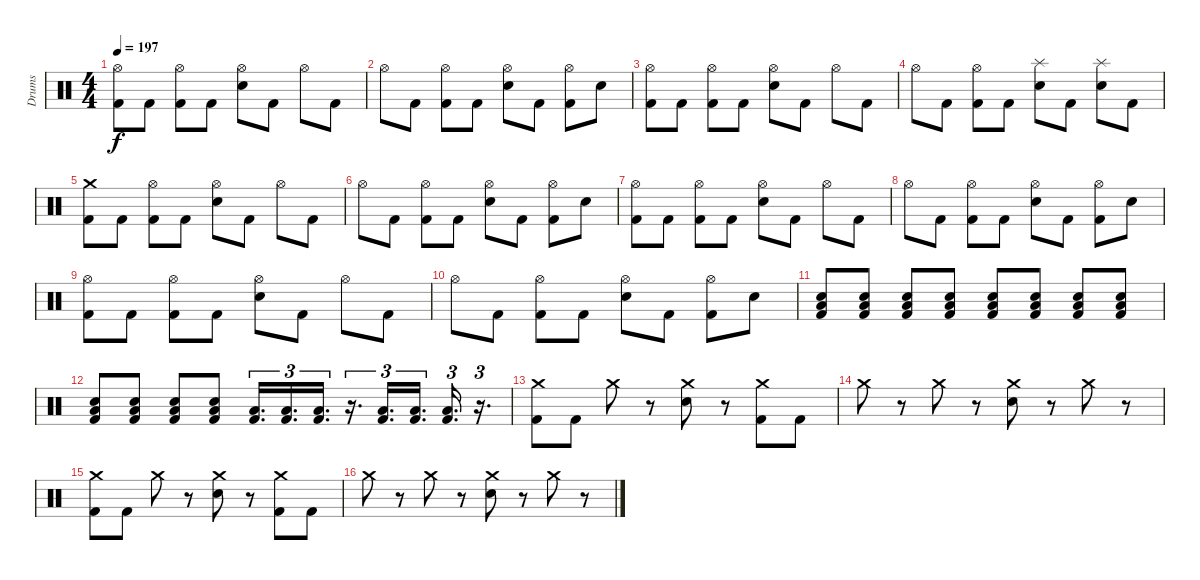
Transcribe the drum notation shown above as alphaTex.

\track ("Drums" "Drums") {instrument percussion}
\staff {score}
\articulation defaults
\ts (4 4)
\tempo 197
\clef neutral
\ks c
("Hi-Hat (open)" "Kick (hit) 2").8{dy f} "Kick (hit) 2".8 ("Hi-Hat (open)" "Kick (hit) 2").8 "Kick (hit) 2".8 ("Hi-Hat (open)" "Electric Snare (hit)").8 "Kick (hit) 2".8 "Hi-Hat (open)".8 "Kick (hit) 2".8 |
"Hi-Hat (open)".8 "Kick (hit) 2".8 ("Hi-Hat (open)" "Kick (hit) 2").8 "Kick (hit) 2".8 ("Hi-Hat (open)" "Electric Snare (hit)").8 "Kick (hit) 2".8 ("Hi-Hat (open)" "Kick (hit) 2").8 "Electric Snare (hit)".8 |
("Hi-Hat (open)" "Kick (hit) 2").8 "Kick (hit) 2".8 ("Hi-Hat (open)" "Kick (hit) 2").8 "Kick (hit) 2".8 ("Hi-Hat (open)" "Electric Snare (hit)").8 "Kick (hit) 2".8 "Hi-Hat (open)".8 "Kick (hit) 2".8 |
"Hi-Hat (open)".8 "Kick (hit) 2".8 ("Hi-Hat (open)" "Kick (hit) 2").8 "Kick (hit) 2".8 ("Splash (hit)" "Electric Snare (hit)").8 "Kick (hit) 2".8 ("Splash (hit)" "Electric Snare (hit)").8 "Kick (hit) 2".8 |
("Crash medium (hit)" "Kick (hit) 2").8 "Kick (hit) 2".8 ("Hi-Hat (open)" "Kick (hit) 2").8 "Kick (hit) 2".8 ("Hi-Hat (open)" "Electric Snare (hit)").8 "Kick (hit) 2".8 "Hi-Hat (open)".8 "Kick (hit) 2".8 |
"Hi-Hat (open)".8 "Kick (hit) 2".8 ("Hi-Hat (open)" "Kick (hit) 2").8 "Kick (hit) 2".8 ("Hi-Hat (open)" "Electric Snare (hit)").8 "Kick (hit) 2".8 ("Hi-Hat (open)" "Kick (hit) 2").8 "Electric Snare (hit)".8 |
("Hi-Hat (open)" "Kick (hit) 2").8 "Kick (hit) 2".8 ("Hi-Hat (open)" "Kick (hit) 2").8 "Kick (hit) 2".8 ("Hi-Hat (open)" "Electric Snare (hit)").8 "Kick (hit) 2".8 "Hi-Hat (open)".8 "Kick (hit) 2".8 |
"Hi-Hat (open)".8 "Kick (hit) 2".8 ("Hi-Hat (open)" "Kick (hit) 2").8 "Kick (hit) 2".8 ("Hi-Hat (open)" "Electric Snare (hit)").8 "Kick (hit) 2".8 ("Hi-Hat (open)" "Kick (hit) 2").8 "Electric Snare (hit)".8 |
("Hi-Hat (open)" "Kick (hit) 2").8 "Kick (hit) 2".8 ("Hi-Hat (open)" "Kick (hit) 2").8 "Kick (hit) 2".8 ("Hi-Hat (open)" "Electric Snare (hit)").8 "Kick (hit) 2".8 "Hi-Hat (open)".8 "Kick (hit) 2".8 |
"Hi-Hat (open)".8 "Kick (hit) 2".8 ("Hi-Hat (open)" "Kick (hit) 2").8 "Kick (hit) 2".8 ("Hi-Hat (open)" "Electric Snare (hit)").8 "Kick (hit) 2".8 ("Hi-Hat (open)" "Kick (hit) 2").8 "Electric Snare (hit)".8 |
("Electric Snare (hit)" "Low Floor Tom (hit)" "Kick (hit) 2").8{volume 7} ("Electric Snare (hit)" "Low Floor Tom (hit)" "Kick (hit) 2").8{volume 16} ("Electric Snare (hit)" "Low Floor Tom (hit)" "Kick (hit) 2").8 ("Electric Snare (hit)" "Low Floor Tom (hit)" "Kick (hit) 2").8 ("Electric Snare (hit)" "Low Floor Tom (hit)" "Kick (hit) 2").8 ("Electric Snare (hit)" "Low Floor Tom (hit)" "Kick (hit) 2").8 ("Electric Snare (hit)" "Low Floor Tom (hit)" "Kick (hit) 2").8 ("Electric Snare (hit)" "Low Floor Tom (hit)" "Kick (hit) 2").8 |
("Electric Snare (hit)" "Low Floor Tom (hit)" "Kick (hit) 2").8 ("Electric Snare (hit)" "Low Floor Tom (hit)" "Kick (hit) 2").8 ("Electric Snare (hit)" "Low Floor Tom (hit)" "Kick (hit) 2").8 ("Electric Snare (hit)" "Low Floor Tom (hit)" "Kick (hit) 2").8 ("Low Floor Tom (hit)" "Kick (hit) 2").16{d tu (3 2)} ("Low Floor Tom (hit)" "Kick (hit) 2").16{d tu (3 2)} ("Low Floor Tom (hit)" "Kick (hit) 2").16{d tu (3 2)} r.16{d tu (3 2)} ("Low Floor Tom (hit)" "Kick (hit) 2").16{d tu (3 2)} ("Low Floor Tom (hit)" "Kick (hit) 2").16{d tu (3 2)} ("Low Floor Tom (hit)" "Kick (hit) 2").16{d tu (3 2)} r.16{d tu (3 2)} |
("Crash medium (hit)" "Kick (hit) 2").8 "Kick (hit) 2".8 "Crash medium (hit)".8 r.8 ("Crash medium (hit)" "Electric Snare (hit)").8 r.8 ("Crash medium (hit)" "Kick (hit) 2").8 "Kick (hit) 2".8 |
"Crash medium (hit)".8 r.8 "Crash medium (hit)".8 r.8 ("Crash medium (hit)" "Electric Snare (hit)").8 r.8 "Crash medium (hit)".8 r.8 |
("Crash medium (hit)" "Kick (hit) 2").8 "Kick (hit) 2".8 "Crash medium (hit)".8 r.8 ("Crash medium (hit)" "Electric Snare (hit)").8 r.8 ("Crash medium (hit)" "Kick (hit) 2").8 "Kick (hit) 2".8 |
"Crash medium (hit)".8 r.8 "Crash medium (hit)".8 r.8 ("Crash medium (hit)" "Electric Snare (hit)").8 r.8 "Crash medium (hit)".8 r.8
